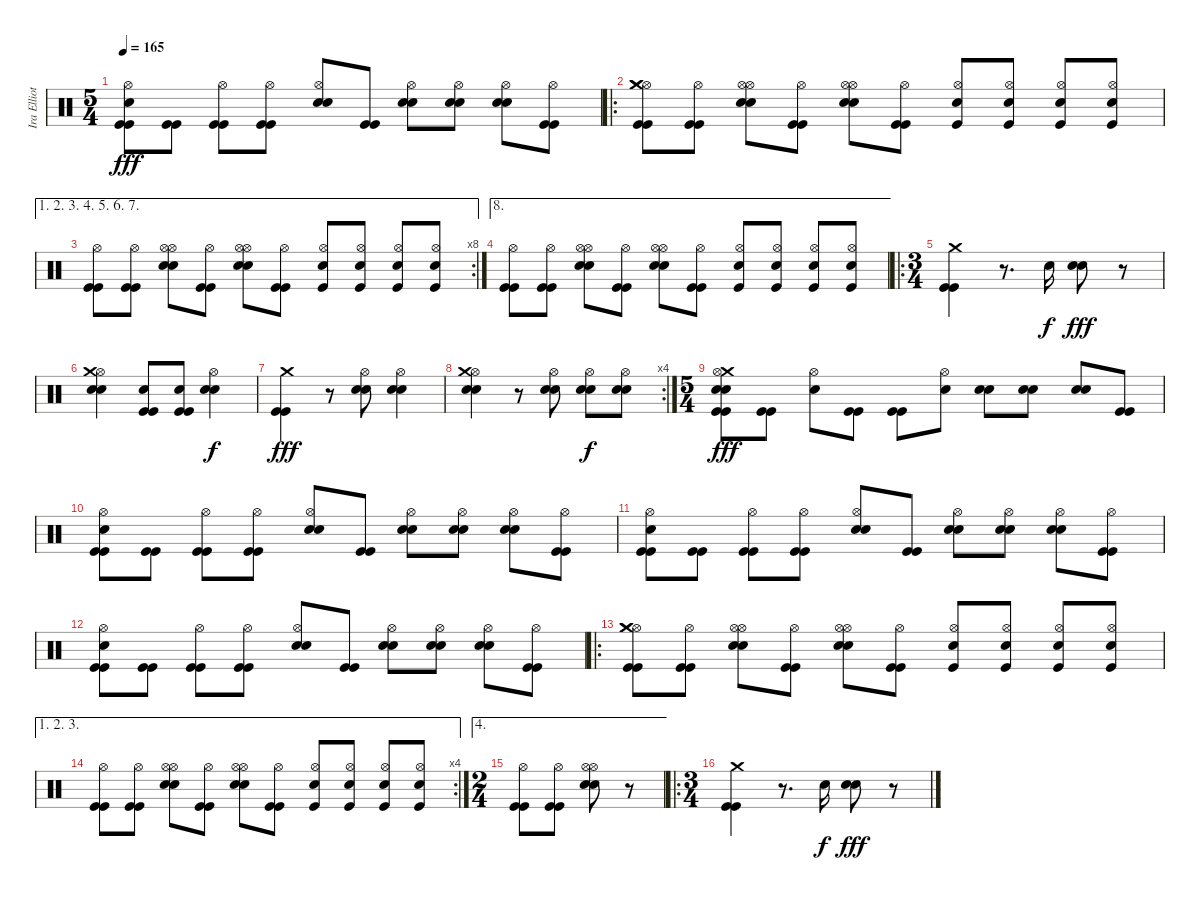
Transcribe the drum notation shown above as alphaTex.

\track ("Ira Elliott (drums)" "Ira Elliot") {instrument percussion}
\staff {score}
\articulation defaults
\ts (5 4)
\tempo 165
\clef neutral
\ks c
("Kick (hit)" "Kick (hit)" "Electric Snare (hit)" "Hi-Hat (open)").8{dy fff} ("Kick (hit)" "Kick (hit)").8 ("Kick (hit)" "Kick (hit)" "Hi-Hat (open)").8 ("Kick (hit)" "Kick (hit)" "Hi-Hat (open)").8 ("Snare (hit) 2" "Electric Snare (hit)" "Hi-Hat (open)").8 ("Kick (hit)" "Kick (hit)").8 ("Snare (hit) 2" "Electric Snare (hit)" "Hi-Hat (open)").8 ("Snare (hit) 2" "Electric Snare (hit)" "Hi-Hat (open)").8 ("Snare (hit) 2" "Electric Snare (hit)" "Hi-Hat (open)").8 ("Kick (hit)" "Kick (hit)" "Hi-Hat (open)").8 |
\ro
("Kick (hit)" "Kick (hit)" "Hi-Hat (open)" "Crash medium (hit)" "Crash medium (hit)").8 ("Kick (hit)" "Kick (hit)" "Hi-Hat (open)").8 ("Snare (hit) 2" "Hi-Hat (open)" "Electric Snare (hit)" "Hi-Hat (open)").8 ("Kick (hit)" "Kick (hit)" "Hi-Hat (open)").8 ("Snare (hit) 2" "Hi-Hat (open)" "Electric Snare (hit)" "Hi-Hat (open)").8 ("Kick (hit)" "Kick (hit)" "Hi-Hat (open)").8 ("Kick (hit)" "Snare (hit) 2" "Hi-Hat (open)").8 ("Kick (hit)" "Snare (hit) 2" "Hi-Hat (open)").8 ("Kick (hit)" "Snare (hit) 2" "Hi-Hat (open)").8 ("Kick (hit)" "Snare (hit) 2" "Hi-Hat (open)").8 |
\ae (1 2 3 4 5 6 7)
\rc 8
("Kick (hit)" "Kick (hit)" "Hi-Hat (open)").8 ("Kick (hit)" "Kick (hit)" "Hi-Hat (open)").8 ("Snare (hit) 2" "Hi-Hat (open)" "Electric Snare (hit)" "Hi-Hat (open)").8 ("Kick (hit)" "Kick (hit)" "Hi-Hat (open)").8 ("Snare (hit) 2" "Hi-Hat (open)" "Electric Snare (hit)" "Hi-Hat (open)").8 ("Kick (hit)" "Kick (hit)" "Hi-Hat (open)").8 ("Kick (hit)" "Snare (hit) 2" "Hi-Hat (open)").8 ("Kick (hit)" "Snare (hit) 2" "Hi-Hat (open)").8 ("Kick (hit)" "Snare (hit) 2" "Hi-Hat (open)").8 ("Kick (hit)" "Snare (hit) 2" "Hi-Hat (open)").8 |
\ae 8
("Kick (hit)" "Kick (hit)" "Hi-Hat (open)").8 ("Kick (hit)" "Kick (hit)" "Hi-Hat (open)").8 ("Snare (hit) 2" "Hi-Hat (open)" "Electric Snare (hit)" "Hi-Hat (open)").8 ("Kick (hit)" "Kick (hit)" "Hi-Hat (open)").8 ("Snare (hit) 2" "Hi-Hat (open)" "Electric Snare (hit)" "Hi-Hat (open)").8 ("Kick (hit)" "Kick (hit)" "Hi-Hat (open)").8 ("Kick (hit)" "Snare (hit) 2" "Hi-Hat (open)").8 ("Kick (hit)" "Snare (hit) 2" "Hi-Hat (open)").8 ("Kick (hit)" "Snare (hit) 2" "Hi-Hat (open)").8 ("Kick (hit)" "Snare (hit) 2" "Hi-Hat (open)").8 |
\ro
\ts (3 4)
("Kick (hit)" "Kick (hit)" "Crash medium (hit)").4 r.8{d} "Snare (hit) 2".16{dy f} ("Snare (hit) 2" "Electric Snare (hit)").8{dy fff} r.8 |
("Snare (hit) 2" "Electric Snare (hit)" "Hi-Hat (open)" "Crash medium (hit)").4 ("Kick (hit)" "Kick (hit)" "Electric Snare (hit)").8 ("Kick (hit)" "Kick (hit)" "Electric Snare (hit)").8 ("Snare (hit) 2" "Hi-Hat (open)" "Electric Snare (hit)").4{dy f} |
("Kick (hit)" "Kick (hit)" "Crash medium (hit)").4{dy fff} r.8 ("Snare (hit) 2" "Electric Snare (hit)" "Hi-Hat (open)").8 ("Snare (hit) 2" "Electric Snare (hit)" "Hi-Hat (open)").4 |
\rc 4
("Snare (hit) 2" "Electric Snare (hit)" "Hi-Hat (open)" "Crash medium (hit)").4 r.8 ("Snare (hit) 2" "Electric Snare (hit)" "Hi-Hat (open)").8 ("Snare (hit) 2" "Electric Snare (hit)" "Hi-Hat (open)").8{dy f} ("Snare (hit) 2" "Electric Snare (hit)" "Hi-Hat (open)").8 |
\ts (5 4)
("Kick (hit)" "Kick (hit)" "Electric Snare (hit)" "Crash medium (hit)" "Hi-Hat (open)" "Snare (hit) 2").8{dy fff} ("Kick (hit)" "Kick (hit)").8 ("Snare (hit) 2" "Hi-Hat (open)").8 ("Kick (hit)" "Kick (hit)").8 ("Kick (hit)" "Kick (hit)").8 ("Snare (hit) 2" "Hi-Hat (open)").8 ("Snare (hit) 2" "Electric Snare (hit)").8 ("Snare (hit) 2" "Electric Snare (hit)").8 ("Snare (hit) 2" "Electric Snare (hit)").8 ("Kick (hit)" "Kick (hit)").8 |
("Kick (hit)" "Kick (hit)" "Electric Snare (hit)" "Hi-Hat (open)").8 ("Kick (hit)" "Kick (hit)").8 ("Kick (hit)" "Kick (hit)" "Hi-Hat (open)").8 ("Kick (hit)" "Kick (hit)" "Hi-Hat (open)").8 ("Snare (hit) 2" "Electric Snare (hit)" "Hi-Hat (open)").8 ("Kick (hit)" "Kick (hit)").8 ("Snare (hit) 2" "Electric Snare (hit)" "Hi-Hat (open)").8 ("Snare (hit) 2" "Electric Snare (hit)" "Hi-Hat (open)").8 ("Snare (hit) 2" "Electric Snare (hit)" "Hi-Hat (open)").8 ("Kick (hit)" "Kick (hit)" "Hi-Hat (open)").8 |
("Kick (hit)" "Kick (hit)" "Electric Snare (hit)" "Hi-Hat (open)").8 ("Kick (hit)" "Kick (hit)").8 ("Kick (hit)" "Kick (hit)" "Hi-Hat (open)").8 ("Kick (hit)" "Kick (hit)" "Hi-Hat (open)").8 ("Snare (hit) 2" "Electric Snare (hit)" "Hi-Hat (open)").8 ("Kick (hit)" "Kick (hit)").8 ("Snare (hit) 2" "Electric Snare (hit)" "Hi-Hat (open)").8 ("Snare (hit) 2" "Electric Snare (hit)" "Hi-Hat (open)").8 ("Snare (hit) 2" "Electric Snare (hit)" "Hi-Hat (open)").8 ("Kick (hit)" "Kick (hit)" "Hi-Hat (open)").8 |
("Kick (hit)" "Kick (hit)" "Electric Snare (hit)" "Hi-Hat (open)").8 ("Kick (hit)" "Kick (hit)").8 ("Kick (hit)" "Kick (hit)" "Hi-Hat (open)").8 ("Kick (hit)" "Kick (hit)" "Hi-Hat (open)").8 ("Snare (hit) 2" "Electric Snare (hit)" "Hi-Hat (open)").8 ("Kick (hit)" "Kick (hit)").8 ("Snare (hit) 2" "Electric Snare (hit)" "Hi-Hat (open)").8 ("Snare (hit) 2" "Electric Snare (hit)" "Hi-Hat (open)").8 ("Snare (hit) 2" "Electric Snare (hit)" "Hi-Hat (open)").8 ("Kick (hit)" "Kick (hit)" "Hi-Hat (open)").8 |
\ro
("Kick (hit)" "Kick (hit)" "Hi-Hat (open)" "Crash medium (hit)" "Crash medium (hit)").8 ("Kick (hit)" "Kick (hit)" "Hi-Hat (open)").8 ("Snare (hit) 2" "Hi-Hat (open)" "Electric Snare (hit)" "Hi-Hat (open)").8 ("Kick (hit)" "Kick (hit)" "Hi-Hat (open)").8 ("Snare (hit) 2" "Hi-Hat (open)" "Electric Snare (hit)" "Hi-Hat (open)").8 ("Kick (hit)" "Kick (hit)" "Hi-Hat (open)").8 ("Kick (hit)" "Snare (hit) 2" "Hi-Hat (open)").8 ("Kick (hit)" "Snare (hit) 2" "Hi-Hat (open)").8 ("Kick (hit)" "Snare (hit) 2" "Hi-Hat (open)").8 ("Kick (hit)" "Snare (hit) 2" "Hi-Hat (open)").8 |
\ae (1 2 3)
\rc 4
("Kick (hit)" "Kick (hit)" "Hi-Hat (open)").8 ("Kick (hit)" "Kick (hit)" "Hi-Hat (open)").8 ("Snare (hit) 2" "Hi-Hat (open)" "Electric Snare (hit)" "Hi-Hat (open)").8 ("Kick (hit)" "Kick (hit)" "Hi-Hat (open)").8 ("Snare (hit) 2" "Hi-Hat (open)" "Electric Snare (hit)" "Hi-Hat (open)").8 ("Kick (hit)" "Kick (hit)" "Hi-Hat (open)").8 ("Kick (hit)" "Snare (hit) 2" "Hi-Hat (open)").8 ("Kick (hit)" "Snare (hit) 2" "Hi-Hat (open)").8 ("Kick (hit)" "Snare (hit) 2" "Hi-Hat (open)").8 ("Kick (hit)" "Snare (hit) 2" "Hi-Hat (open)").8 |
\ae 4
\ts (2 4)
("Kick (hit)" "Kick (hit)" "Hi-Hat (open)").8 ("Kick (hit)" "Kick (hit)" "Hi-Hat (open)").8 ("Snare (hit) 2" "Hi-Hat (open)" "Electric Snare (hit)" "Hi-Hat (open)").8 r.8 |
\ro
\ts (3 4)
("Kick (hit)" "Kick (hit)" "Crash medium (hit)").4 r.8{d} "Snare (hit) 2".16{dy f} ("Snare (hit) 2" "Electric Snare (hit)").8{dy fff} r.8
